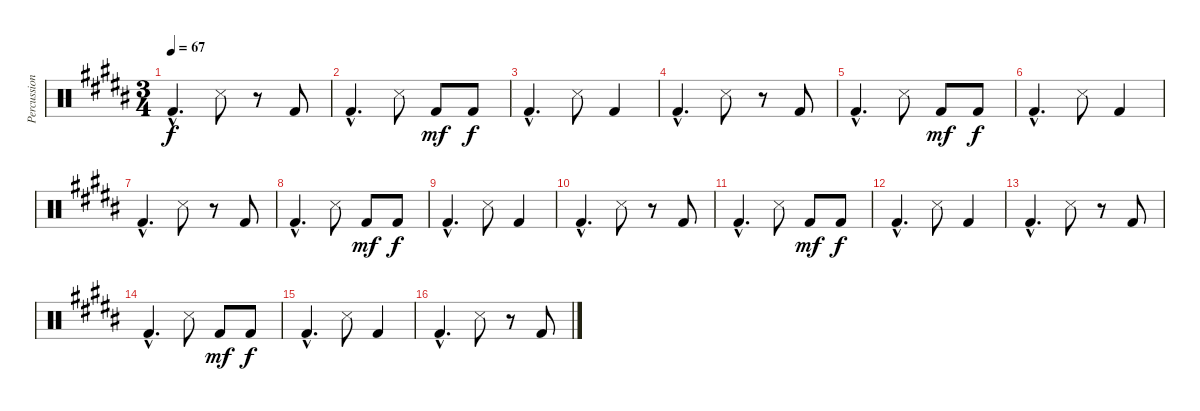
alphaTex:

\track ("Percussion" "Percussion") {instrument percussion}
\staff {score}
\articulation defaults
\ts (3 4)
\tempo 67
\clef neutral
\ks b "Kick (hit) 2"{hac}.4{d dy f} "Snare (side stick) 3".8
r.8 "Kick (hit) 2".8 |
"Kick (hit) 2"{hac}.4{d} "Snare (side stick) 3".8 "Kick (hit) 2".8{dy mf} "Kick (hit) 2".8{dy f} |
"Kick (hit) 2"{hac}.4{d} "Snare (side stick) 3".8 "Kick (hit) 2".4 |
"Kick (hit) 2"{hac}.4{d} "Snare (side stick) 3".8 r.8 "Kick (hit) 2".8 |
"Kick (hit) 2"{hac}.4{d} "Snare (side stick) 3".8 "Kick (hit) 2".8{dy mf} "Kick (hit) 2".8{dy f} |
"Kick (hit) 2"{hac}.4{d} "Snare (side stick) 3".8 "Kick (hit) 2".4 |
"Kick (hit) 2"{hac}.4{d} "Snare (side stick) 3".8 r.8 "Kick (hit) 2".8 |
"Kick (hit) 2"{hac}.4{d} "Snare (side stick) 3".8 "Kick (hit) 2".8{dy mf} "Kick (hit) 2".8{dy f} |
"Kick (hit) 2"{hac}.4{d} "Snare (side stick) 3".8 "Kick (hit) 2".4 |
"Kick (hit) 2"{hac}.4{d} "Snare (side stick) 3".8 r.8 "Kick (hit) 2".8 |
"Kick (hit) 2"{hac}.4{d} "Snare (side stick) 3".8 "Kick (hit) 2".8{dy mf} "Kick (hit) 2".8{dy f} |
"Kick (hit) 2"{hac}.4{d} "Snare (side stick) 3".8 "Kick (hit) 2".4 |
"Kick (hit) 2"{hac}.4{d} "Snare (side stick) 3".8 r.8 "Kick (hit) 2".8 |
"Kick (hit) 2"{hac}.4{d} "Snare (side stick) 3".8 "Kick (hit) 2".8{dy mf} "Kick (hit) 2".8{dy f} |
"Kick (hit) 2"{hac}.4{d} "Snare (side stick) 3".8 "Kick (hit) 2".4 |
"Kick (hit) 2"{hac}.4{d} "Snare (side stick) 3".8 r.8 "Kick (hit) 2".8
